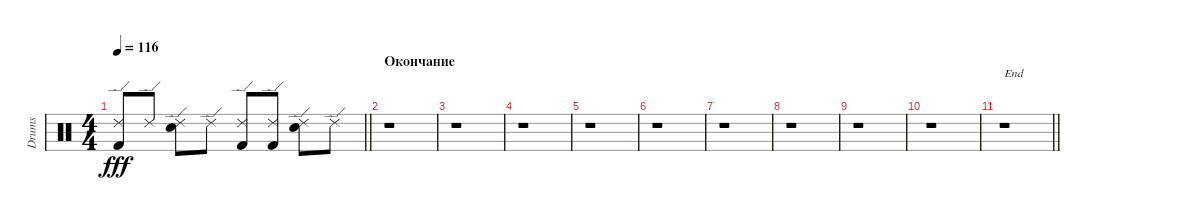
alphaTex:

\track ("Drums" "Drums") {instrument percussion}
\staff {score}
\articulation defaults
\ts (4 4)
\tempo 116
\clef neutral
\barLineRight lightlight
\ks c
("Ride (edge) 2" "Kick (hit) 2").8{dy fff} "Ride (edge) 2".8 ("Ride (edge) 2" "Snare (hit) 2").8 "Ride (edge) 2".8 ("Ride (edge) 2" "Kick (hit) 2").8 ("Ride (edge) 2" "Kick (hit) 2").8 ("Ride (edge) 2" "Snare (hit) 2").8 "Ride (edge) 2".8 |
\section ("" "Окончание")
r.1 |
r.1 |
r.1 |
r.1 |
r.1 |
r.1 |
r.1 |
r.1 |
r.1 |
\barLineRight lightlight
r.1{txt "End"}
